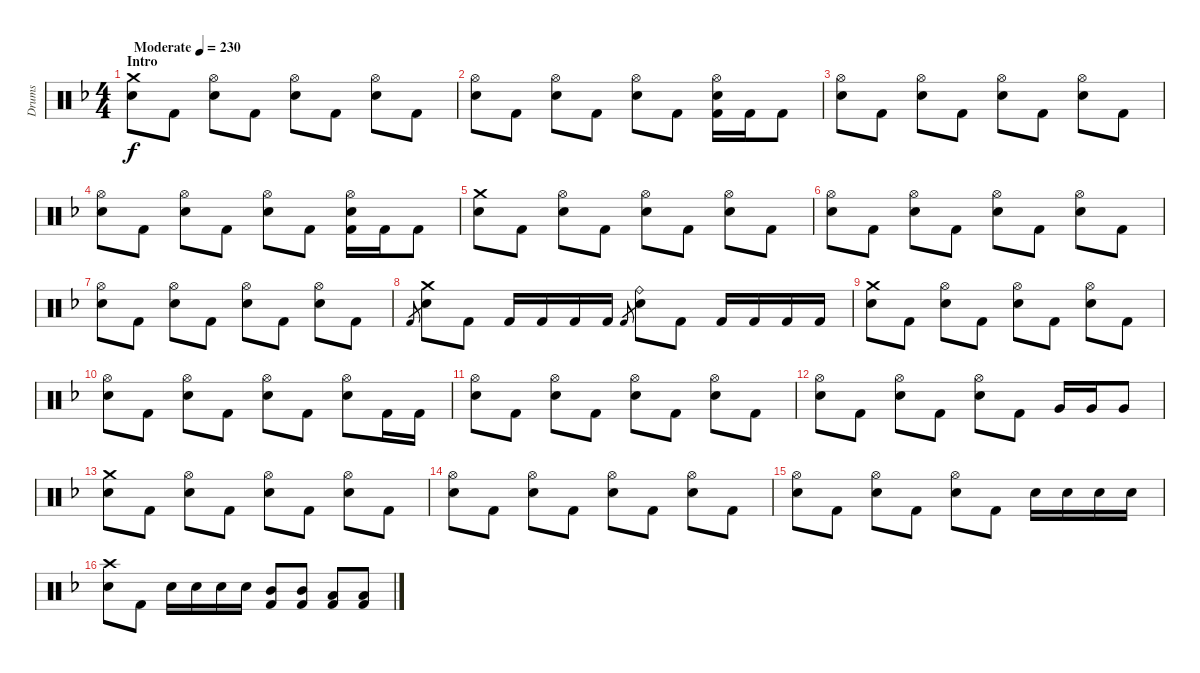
\track ("Drums" "Drums") {instrument percussion}
\staff {score}
\articulation defaults
\ts (4 4)
\section ("" "Intro")
\tempo (230 "Moderate")
\clef neutral
\ks f
("Crash medium (hit)" "Snare (hit) 2").8{dy f} "Kick (hit) 2".8 ("Hi-Hat (open)" "Snare (hit) 2").8 "Kick (hit) 2".8 ("Hi-Hat (open)" "Snare (hit) 2").8 "Kick (hit) 2".8 ("Hi-Hat (open)" "Snare (hit) 2").8 "Kick (hit) 2".8 |
("Hi-Hat (open)" "Snare (hit) 2").8 "Kick (hit) 2".8 ("Hi-Hat (open)" "Snare (hit) 2").8 "Kick (hit) 2".8 ("Hi-Hat (open)" "Snare (hit) 2").8 "Kick (hit) 2".8 ("Hi-Hat (open)" "Snare (hit) 2" "Kick (hit) 2").16 "Kick (hit) 2".16 "Kick (hit) 2".8 |
("Hi-Hat (open)" "Snare (hit) 2").8 "Kick (hit) 2".8 ("Hi-Hat (open)" "Snare (hit) 2").8 "Kick (hit) 2".8 ("Hi-Hat (open)" "Snare (hit) 2").8 "Kick (hit) 2".8 ("Hi-Hat (open)" "Snare (hit) 2").8 "Kick (hit) 2".8 |
("Hi-Hat (open)" "Snare (hit) 2").8 "Kick (hit) 2".8 ("Hi-Hat (open)" "Snare (hit) 2").8 "Kick (hit) 2".8 ("Hi-Hat (open)" "Snare (hit) 2").8 "Kick (hit) 2".8 ("Hi-Hat (open)" "Snare (hit) 2" "Kick (hit) 2").16 "Kick (hit) 2".16 "Kick (hit) 2".8 |
("Crash medium (hit)" "Snare (hit) 2").8 "Kick (hit) 2".8 ("Hi-Hat (open)" "Snare (hit) 2").8 "Kick (hit) 2".8 ("Hi-Hat (open)" "Snare (hit) 2").8 "Kick (hit) 2".8 ("Hi-Hat (open)" "Snare (hit) 2").8 "Kick (hit) 2".8 |
("Hi-Hat (open)" "Snare (hit) 2").8 "Kick (hit) 2".8 ("Hi-Hat (open)" "Snare (hit) 2").8 "Kick (hit) 2".8 ("Hi-Hat (open)" "Snare (hit) 2").8 "Kick (hit) 2".8 ("Hi-Hat (open)" "Snare (hit) 2").8 "Kick (hit) 2".8 |
("Hi-Hat (open)" "Snare (hit) 2").8 "Kick (hit) 2".8 ("Hi-Hat (open)" "Snare (hit) 2").8 "Kick (hit) 2".8 ("Hi-Hat (open)" "Snare (hit) 2").8 "Kick (hit) 2".8 ("Hi-Hat (open)" "Snare (hit) 2").8 "Kick (hit) 2".8 |
"Kick (hit) 2".8{gr} ("Crash medium (hit)" "Snare (hit) 2").8 "Kick (hit) 2".8 "Kick (hit) 2".16 "Kick (hit) 2".16 "Kick (hit) 2".16 "Kick (hit) 2".16 "Kick (hit) 2".8{gr} ("Ride (bell)" "Snare (hit) 2").8 "Kick (hit) 2".8 "Kick (hit) 2".16 "Kick (hit) 2".16 "Kick (hit) 2".16 "Kick (hit) 2".16 |
("Crash medium (hit)" "Snare (hit) 2").8 "Kick (hit) 2".8 ("Hi-Hat (open)" "Snare (hit) 2").8 "Kick (hit) 2".8 ("Hi-Hat (open)" "Snare (hit) 2").8 "Kick (hit) 2".8 ("Hi-Hat (open)" "Snare (hit) 2").8 "Kick (hit) 2".8 |
("Hi-Hat (open)" "Snare (hit) 2").8 "Kick (hit) 2".8 ("Hi-Hat (open)" "Snare (hit) 2").8 "Kick (hit) 2".8 ("Hi-Hat (open)" "Snare (hit) 2").8 "Kick (hit) 2".8 ("Hi-Hat (open)" "Snare (hit) 2").8 "Kick (hit) 2".16 "Kick (hit) 2".16 |
("Hi-Hat (open)" "Snare (hit) 2").8 "Kick (hit) 2".8 ("Hi-Hat (open)" "Snare (hit) 2").8 "Kick (hit) 2".8 ("Hi-Hat (open)" "Snare (hit) 2").8 "Kick (hit) 2".8 ("Hi-Hat (open)" "Snare (hit) 2").8 "Kick (hit) 2".8 |
("Hi-Hat (open)" "Snare (hit) 2").8 "Kick (hit) 2".8 ("Hi-Hat (open)" "Snare (hit) 2").8 "Kick (hit) 2".8 ("Hi-Hat (open)" "Snare (hit) 2").8 "Kick (hit) 2".8 "Very Low Tom (hit)".16 "Very Low Tom (hit)".16 "Very Low Tom (hit)".8 |
("Crash medium (hit)" "Snare (hit) 2").8 "Kick (hit) 2".8 ("Hi-Hat (open)" "Snare (hit) 2").8 "Kick (hit) 2".8 ("Hi-Hat (open)" "Snare (hit) 2").8 "Kick (hit) 2".8 ("Hi-Hat (open)" "Snare (hit) 2").8 "Kick (hit) 2".8 |
("Hi-Hat (open)" "Snare (hit) 2").8 "Kick (hit) 2".8 ("Hi-Hat (open)" "Snare (hit) 2").8 "Kick (hit) 2".8 ("Hi-Hat (open)" "Snare (hit) 2").8 "Kick (hit) 2".8 ("Hi-Hat (open)" "Snare (hit) 2").8 "Kick (hit) 2".8 |
("Hi-Hat (open)" "Snare (hit) 2").8 "Kick (hit) 2".8 ("Hi-Hat (open)" "Snare (hit) 2").8 "Kick (hit) 2".8 ("Hi-Hat (open)" "Snare (hit) 2").8 "Kick (hit) 2".8 "Snare (hit) 2".16 "Snare (hit) 2".16 "Snare (hit) 2".16 "Snare (hit) 2".16 |
("Crash high (hit)" "Snare (hit) 2").8 "Kick (hit) 2".8 "Snare (hit) 2".16 "Snare (hit) 2".16 "Snare (hit) 2".16 "Snare (hit) 2".16 ("Mid Tom (hit)" "Kick (hit) 2").8 ("Mid Tom (hit)" "Kick (hit) 2").8 ("Low Tom (hit)" "Kick (hit) 2").8 ("Low Tom (hit)" "Kick (hit) 2").8
